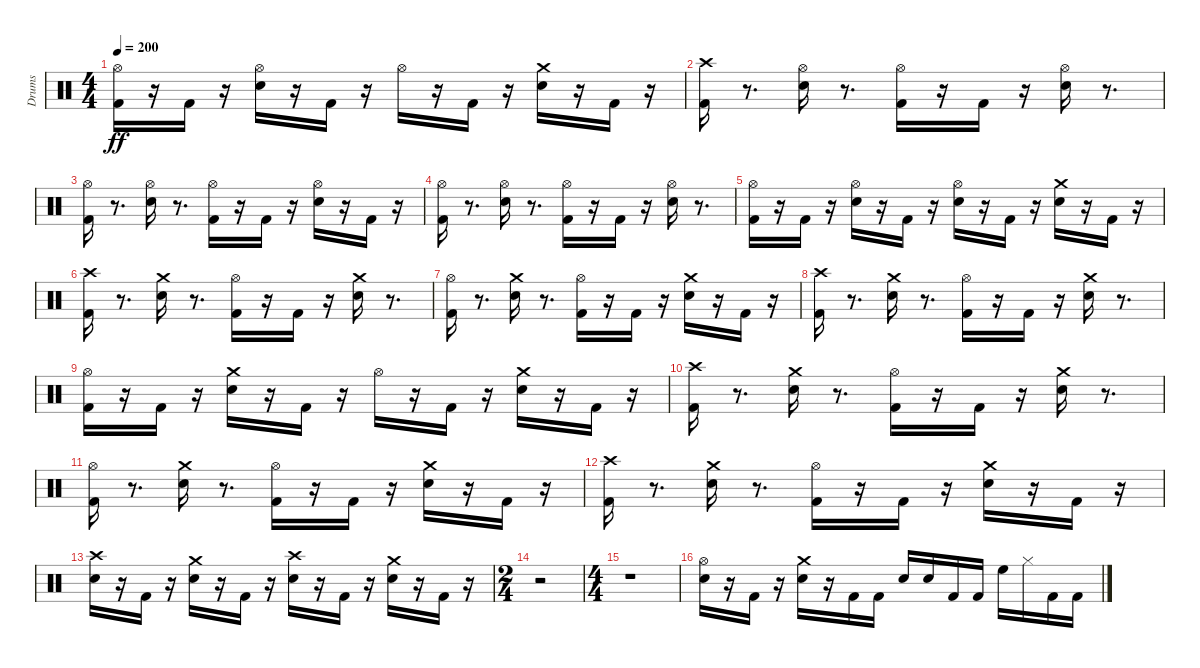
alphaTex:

\track ("Drums" "Drums") {instrument percussion}
\staff {score}
\articulation defaults
\ts (4 4)
\tempo 200
\clef neutral
\ks c
("Kick (hit) 2" "Hi-Hat (open)").16{dy ff} r.16 "Kick (hit) 2".16 r.16 ("Snare (hit) 2" "Hi-Hat (open)").16 r.16 "Kick (hit) 2".16 r.16 "Hi-Hat (open)".16 r.16 "Kick (hit) 2".16 r.16 ("Snare (hit) 2" "Crash medium (hit)").16 r.16 "Kick (hit) 2".16 r.16 |
("Kick (hit) 2" "Crash high (hit)").16 r.8{d} ("Snare (hit) 2" "Hi-Hat (open)").16 r.8{d} ("Kick (hit) 2" "Hi-Hat (open)").16 r.16 "Kick (hit) 2".16 r.16 ("Snare (hit) 2" "Hi-Hat (open)").16 r.8{d} |
("Kick (hit) 2" "Hi-Hat (open)").16 r.8{d} ("Snare (hit) 2" "Hi-Hat (open)").16 r.8{d} ("Kick (hit) 2" "Hi-Hat (open)").16 r.16 "Kick (hit) 2".16 r.16 ("Snare (hit) 2" "Hi-Hat (open)").16 r.16 "Kick (hit) 2".16 r.16 |
("Kick (hit) 2" "Hi-Hat (open)").16 r.8{d} ("Snare (hit) 2" "Hi-Hat (open)").16 r.8{d} ("Kick (hit) 2" "Hi-Hat (open)").16 r.16 "Kick (hit) 2".16 r.16 ("Snare (hit) 2" "Hi-Hat (open)").16 r.8{d} |
("Kick (hit) 2" "Hi-Hat (open)").16 r.16 "Kick (hit) 2".16 r.16 ("Snare (hit) 2" "Hi-Hat (open)").16 r.16 "Kick (hit) 2".16 r.16 ("Snare (hit) 2" "Hi-Hat (open)").16 r.16 "Kick (hit) 2".16 r.16 ("Snare (hit) 2" "Crash medium (hit)").16 r.16 "Kick (hit) 2".16 r.16 |
("Kick (hit) 2" "Crash high (hit)").16 r.8{d} ("Snare (hit) 2" "Crash medium (hit)").16 r.8{d} ("Kick (hit) 2" "Hi-Hat (open)").16 r.16 "Kick (hit) 2".16 r.16 ("Snare (hit) 2" "Crash medium (hit)").16 r.8{d} |
("Kick (hit) 2" "Hi-Hat (open)").16 r.8{d} ("Snare (hit) 2" "Crash medium (hit)").16 r.8{d} ("Kick (hit) 2" "Hi-Hat (open)").16 r.16 "Kick (hit) 2".16 r.16 ("Snare (hit) 2" "Crash medium (hit)").16 r.16 "Kick (hit) 2".16 r.16 |
("Kick (hit) 2" "Crash high (hit)").16 r.8{d} ("Snare (hit) 2" "Crash medium (hit)").16 r.8{d} ("Kick (hit) 2" "Hi-Hat (open)").16 r.16 "Kick (hit) 2".16 r.16 ("Snare (hit) 2" "Crash medium (hit)").16 r.8{d} |
("Kick (hit) 2" "Hi-Hat (open)").16 r.16 "Kick (hit) 2".16 r.16 ("Snare (hit) 2" "Crash medium (hit)").16 r.16 "Kick (hit) 2".16 r.16 "Hi-Hat (open)".16 r.16 "Kick (hit) 2".16 r.16 ("Snare (hit) 2" "Crash medium (hit)").16 r.16 "Kick (hit) 2".16 r.16 |
("Kick (hit) 2" "Crash high (hit)").16 r.8{d} ("Snare (hit) 2" "Crash medium (hit)").16 r.8{d} ("Kick (hit) 2" "Hi-Hat (open)").16 r.16 "Kick (hit) 2".16 r.16 ("Snare (hit) 2" "Crash medium (hit)").16 r.8{d} |
("Kick (hit) 2" "Hi-Hat (open)").16 r.8{d} ("Snare (hit) 2" "Crash medium (hit)").16 r.8{d} ("Kick (hit) 2" "Hi-Hat (open)").16 r.16 "Kick (hit) 2".16 r.16 ("Snare (hit) 2" "Crash medium (hit)").16 r.16 "Kick (hit) 2".16 r.16 |
("Kick (hit) 2" "Crash high (hit)").16 r.8{d} ("Snare (hit) 2" "Crash medium (hit)").16 r.8{d} ("Kick (hit) 2" "Hi-Hat (open)").16 r.16 "Kick (hit) 2".16 r.16 ("Snare (hit) 2" "Crash medium (hit)").16 r.16 "Kick (hit) 2".16 r.16 |
("Snare (hit) 2" "Crash high (hit)").16 r.16 "Kick (hit) 2".16 r.16 ("Snare (hit) 2" "Crash medium (hit)").16 r.16 "Kick (hit) 2".16 r.16 ("Snare (hit) 2" "Crash high (hit)").16 r.16 "Kick (hit) 2".16 r.16 ("Snare (hit) 2" "Crash medium (hit)").16 r.16 "Kick (hit) 2".16 r.16 |
\ts (2 4)
r.2 |
\ts (4 4)
r.1 |
("Snare (hit) 2" "Hi-Hat (open)").16 r.16 "Kick (hit) 2".16 r.16 ("Snare (hit) 2" "Crash medium (hit)").16 r.16 "Kick (hit) 2".16 "Kick (hit) 2".16 "Snare (hit) 2".16 "Snare (hit) 2".16 "Kick (hit) 2".16 "Kick (hit) 2".16 "High Floor Tom (hit)".16 "Hi-Hat (closed)".16 "Kick (hit) 2".16 "Kick (hit) 2".16
